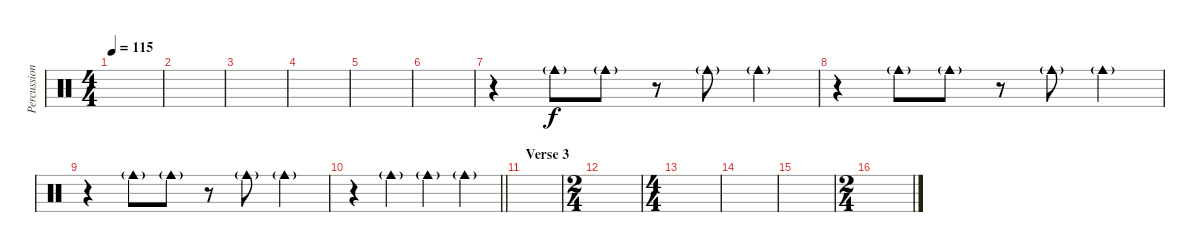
\track ("Percussioni" "Percussion") {instrument percussion}
\staff {score}
\articulation defaults
\ts (4 4)
\tempo 115
\clef neutral
\ks c
|
|
|
|
|
|
r.4 "Cowbell medium (hit)"{g}.8 "Cowbell medium (hit)"{g}.8 r.8 "Cowbell medium (hit)"{g}.8 "Cowbell medium (hit)"{g}.4 |
r.4 "Cowbell medium (hit)"{g}.8 "Cowbell medium (hit)"{g}.8 r.8 "Cowbell medium (hit)"{g}.8 "Cowbell medium (hit)"{g}.4 |
r.4 "Cowbell medium (hit)"{g}.8 "Cowbell medium (hit)"{g}.8 r.8 "Cowbell medium (hit)"{g}.8 "Cowbell medium (hit)"{g}.4 |
\barLineRight lightlight
r.4 "Cowbell medium (hit)"{g}.4 "Cowbell medium (hit)"{g}.4 "Cowbell medium (hit)"{g}.4 |
\section ("" "Verse 3")
|
\ts (2 4)
|
\ts (4 4)
|
|
|
\ts (2 4)
